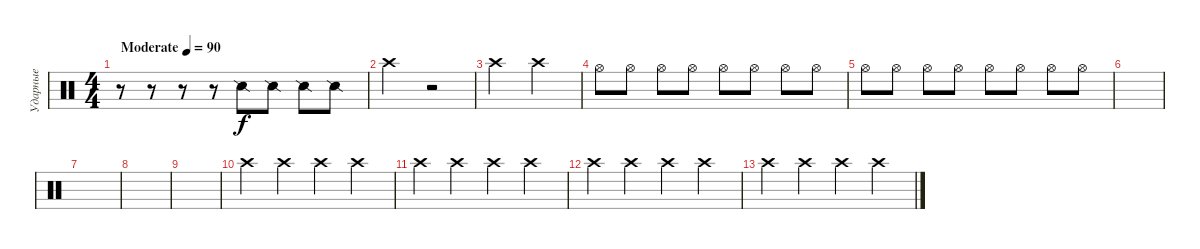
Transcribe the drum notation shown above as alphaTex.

\track ("Ударные" "Ударные") {instrument percussion}
\staff {score}
\articulation defaults
\ts (4 4)
\tempo (90 "Moderate")
\clef neutral
\ks c
r.8{dy f} r.8 r.8 r.8 "Snare (side stick) 2".8 "Snare (side stick) 2".8 "Snare (side stick) 2".8 "Snare (side stick) 2".8 |
"Crash high (hit)".2 r.2 |
"Crash high (hit)".2 "Crash high (hit)".2 |
"Hi-Hat (open)".8 "Hi-Hat (open)".8 "Hi-Hat (open)".8 "Hi-Hat (open)".8 "Hi-Hat (open)".8 "Hi-Hat (open)".8 "Hi-Hat (open)".8 "Hi-Hat (open)".8 |
"Hi-Hat (open)".8 "Hi-Hat (open)".8 "Hi-Hat (open)".8 "Hi-Hat (open)".8 "Hi-Hat (open)".8 "Hi-Hat (open)".8 "Hi-Hat (open)".8 "Hi-Hat (open)".8 |
|
|
|
|
"Crash high (hit)".4 "Crash high (hit)".4 "Crash high (hit)".4 "Crash high (hit)".4 |
"Crash high (hit)".4 "Crash high (hit)".4 "Crash high (hit)".4 "Crash high (hit)".4 |
"Crash high (hit)".4 "Crash high (hit)".4 "Crash high (hit)".4 "Crash high (hit)".4 |
"Crash high (hit)".4 "Crash high (hit)".4 "Crash high (hit)".4 "Crash high (hit)".4
